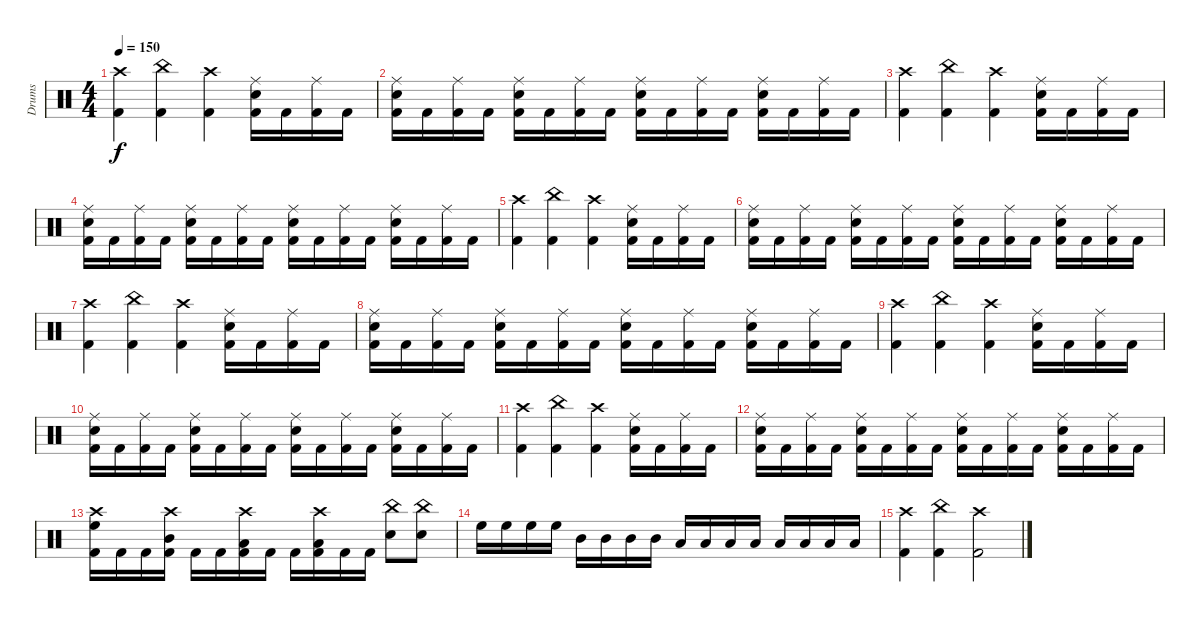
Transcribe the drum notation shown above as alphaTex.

\track ("Drums" "Drums") {instrument percussion}
\staff {score}
\articulation defaults
\ts (4 4)
\tempo 150
\clef neutral
\ks c
("Crash high (hit)" "Kick (hit) 2").4{dy f} ("China (hit)" "Kick (hit) 2").4 ("Crash high (hit)" "Kick (hit) 2").4 ("Ride (middle)" "Snare (hit) 2" "Kick (hit) 2").16 "Kick (hit) 2".16 ("Ride (middle)" "Kick (hit) 2").16 "Kick (hit) 2".16 |
("Ride (middle)" "Snare (hit) 2" "Kick (hit) 2").16 "Kick (hit) 2".16 ("Ride (middle)" "Kick (hit) 2").16 "Kick (hit) 2".16 ("Ride (middle)" "Snare (hit) 2" "Kick (hit) 2").16 "Kick (hit) 2".16 ("Ride (middle)" "Kick (hit) 2").16 "Kick (hit) 2".16 ("Ride (middle)" "Snare (hit) 2" "Kick (hit) 2").16 "Kick (hit) 2".16 ("Ride (middle)" "Kick (hit) 2").16 "Kick (hit) 2".16 ("Ride (middle)" "Snare (hit) 2" "Kick (hit) 2").16 "Kick (hit) 2".16 ("Ride (middle)" "Kick (hit) 2").16 "Kick (hit) 2".16 |
("Crash high (hit)" "Kick (hit) 2").4 ("China (hit)" "Kick (hit) 2").4 ("Crash high (hit)" "Kick (hit) 2").4 ("Ride (middle)" "Snare (hit) 2" "Kick (hit) 2").16 "Kick (hit) 2".16 ("Ride (middle)" "Kick (hit) 2").16 "Kick (hit) 2".16 |
("Ride (middle)" "Snare (hit) 2" "Kick (hit) 2").16 "Kick (hit) 2".16 ("Ride (middle)" "Kick (hit) 2").16 "Kick (hit) 2".16 ("Ride (middle)" "Snare (hit) 2" "Kick (hit) 2").16 "Kick (hit) 2".16 ("Ride (middle)" "Kick (hit) 2").16 "Kick (hit) 2".16 ("Ride (middle)" "Snare (hit) 2" "Kick (hit) 2").16 "Kick (hit) 2".16 ("Ride (middle)" "Kick (hit) 2").16 "Kick (hit) 2".16 ("Ride (middle)" "Snare (hit) 2" "Kick (hit) 2").16 "Kick (hit) 2".16 ("Ride (middle)" "Kick (hit) 2").16 "Kick (hit) 2".16 |
("Crash high (hit)" "Kick (hit) 2").4 ("China (hit)" "Kick (hit) 2").4 ("Crash high (hit)" "Kick (hit) 2").4 ("Ride (middle)" "Snare (hit) 2" "Kick (hit) 2").16 "Kick (hit) 2".16 ("Ride (middle)" "Kick (hit) 2").16 "Kick (hit) 2".16 |
("Ride (middle)" "Snare (hit) 2" "Kick (hit) 2").16 "Kick (hit) 2".16 ("Ride (middle)" "Kick (hit) 2").16 "Kick (hit) 2".16 ("Ride (middle)" "Snare (hit) 2" "Kick (hit) 2").16 "Kick (hit) 2".16 ("Ride (middle)" "Kick (hit) 2").16 "Kick (hit) 2".16 ("Ride (middle)" "Snare (hit) 2" "Kick (hit) 2").16 "Kick (hit) 2".16 ("Ride (middle)" "Kick (hit) 2").16 "Kick (hit) 2".16 ("Ride (middle)" "Snare (hit) 2" "Kick (hit) 2").16 "Kick (hit) 2".16 ("Ride (middle)" "Kick (hit) 2").16 "Kick (hit) 2".16 |
("Crash high (hit)" "Kick (hit) 2").4 ("China (hit)" "Kick (hit) 2").4 ("Crash high (hit)" "Kick (hit) 2").4 ("Ride (middle)" "Snare (hit) 2" "Kick (hit) 2").16 "Kick (hit) 2".16 ("Ride (middle)" "Kick (hit) 2").16 "Kick (hit) 2".16 |
("Ride (middle)" "Snare (hit) 2" "Kick (hit) 2").16 "Kick (hit) 2".16 ("Ride (middle)" "Kick (hit) 2").16 "Kick (hit) 2".16 ("Ride (middle)" "Snare (hit) 2" "Kick (hit) 2").16 "Kick (hit) 2".16 ("Ride (middle)" "Kick (hit) 2").16 "Kick (hit) 2".16 ("Ride (middle)" "Snare (hit) 2" "Kick (hit) 2").16 "Kick (hit) 2".16 ("Ride (middle)" "Kick (hit) 2").16 "Kick (hit) 2".16 ("Ride (middle)" "Snare (hit) 2" "Kick (hit) 2").16 "Kick (hit) 2".16 ("Ride (middle)" "Kick (hit) 2").16 "Kick (hit) 2".16 |
("Crash high (hit)" "Kick (hit) 2").4 ("China (hit)" "Kick (hit) 2").4 ("Crash high (hit)" "Kick (hit) 2").4 ("Ride (middle)" "Snare (hit) 2" "Kick (hit) 2").16 "Kick (hit) 2".16 ("Ride (middle)" "Kick (hit) 2").16 "Kick (hit) 2".16 |
("Ride (middle)" "Snare (hit) 2" "Kick (hit) 2").16 "Kick (hit) 2".16 ("Ride (middle)" "Kick (hit) 2").16 "Kick (hit) 2".16 ("Ride (middle)" "Snare (hit) 2" "Kick (hit) 2").16 "Kick (hit) 2".16 ("Ride (middle)" "Kick (hit) 2").16 "Kick (hit) 2".16 ("Ride (middle)" "Snare (hit) 2" "Kick (hit) 2").16 "Kick (hit) 2".16 ("Ride (middle)" "Kick (hit) 2").16 "Kick (hit) 2".16 ("Ride (middle)" "Snare (hit) 2" "Kick (hit) 2").16 "Kick (hit) 2".16 ("Ride (middle)" "Kick (hit) 2").16 "Kick (hit) 2".16 |
("Crash high (hit)" "Kick (hit) 2").4 ("China (hit)" "Kick (hit) 2").4 ("Crash high (hit)" "Kick (hit) 2").4 ("Ride (middle)" "Snare (hit) 2" "Kick (hit) 2").16 "Kick (hit) 2".16 ("Ride (middle)" "Kick (hit) 2").16 "Kick (hit) 2".16 |
("Ride (middle)" "Snare (hit) 2" "Kick (hit) 2").16 "Kick (hit) 2".16 ("Ride (middle)" "Kick (hit) 2").16 "Kick (hit) 2".16 ("Ride (middle)" "Snare (hit) 2" "Kick (hit) 2").16 "Kick (hit) 2".16 ("Ride (middle)" "Kick (hit) 2").16 "Kick (hit) 2".16 ("Ride (middle)" "Snare (hit) 2" "Kick (hit) 2").16 "Kick (hit) 2".16 ("Ride (middle)" "Kick (hit) 2").16 "Kick (hit) 2".16 ("Ride (middle)" "Snare (hit) 2" "Kick (hit) 2").16 "Kick (hit) 2".16 ("Ride (middle)" "Kick (hit) 2").16 "Kick (hit) 2".16 |
("Crash high (hit)" "High Floor Tom (hit)" "Kick (hit) 2").16 "Kick (hit) 2".16 "Kick (hit) 2".16 ("Crash high (hit)" "Mid Tom (hit)" "Kick (hit) 2").16 "Kick (hit) 2".16 "Kick (hit) 2".16 ("Crash high (hit)" "Low Tom (hit)" "Kick (hit) 2").16 "Kick (hit) 2".16 "Kick (hit) 2".16 ("Crash high (hit)" "Low Floor Tom (hit)" "Kick (hit) 2").16 "Kick (hit) 2".16 "Kick (hit) 2".16 ("China (hit)" "Snare (hit) 2").8 ("China (hit)" "Snare (hit) 2").8 |
"High Floor Tom (hit)".16 "High Floor Tom (hit)".16 "High Floor Tom (hit)".16 "High Floor Tom (hit)".16 "Mid Tom (hit)".16 "Mid Tom (hit)".16 "Mid Tom (hit)".16 "Mid Tom (hit)".16 "Low Tom (hit)".16 "Low Tom (hit)".16 "Low Tom (hit)".16 "Low Tom (hit)".16 "Low Floor Tom (hit)".16 "Low Floor Tom (hit)".16 "Low Floor Tom (hit)".16 "Low Floor Tom (hit)".16 |
("Crash high (hit)" "Kick (hit) 2").4 ("China (hit)" "Kick (hit) 2").4 ("Crash high (hit)" "Kick (hit) 2").2
